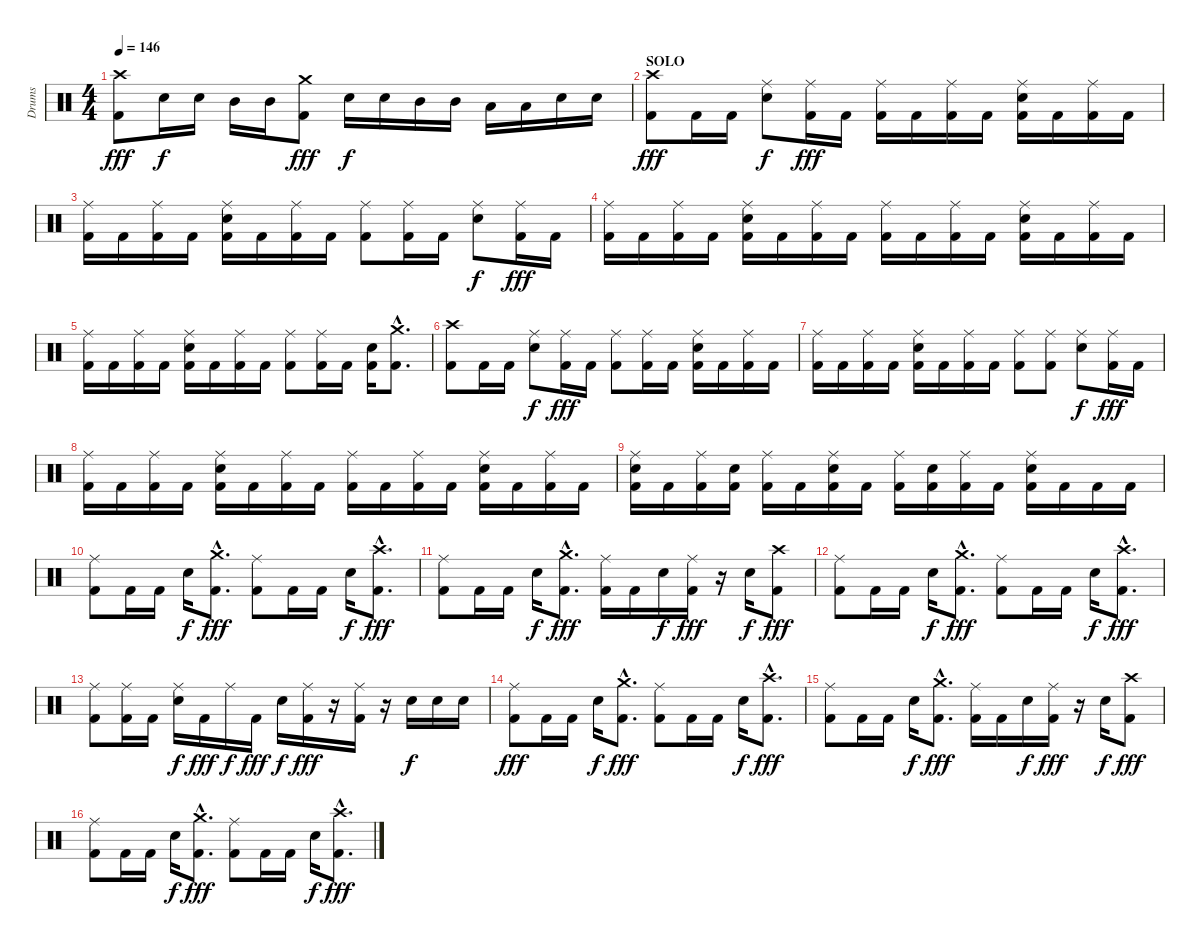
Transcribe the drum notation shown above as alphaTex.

\track ("Drums" "Drums") {instrument percussion}
\staff {score}
\articulation defaults
\ts (4 4)
\tempo 146
\clef neutral
\ks c
("Crash high (hit)" "Kick (hit) 2").8{dy fff} "Snare (hit) 2".16{dy f} "Snare (hit) 2".16 "Mid Tom (hit)".16 "Mid Tom (hit)".16 ("Crash medium (hit)" "Kick (hit) 2").8{dy fff} "Snare (hit) 2".16{dy f} "Snare (hit) 2".16 "Mid Tom (hit)".16 "Mid Tom (hit)".16 "Low Tom (hit)".16 "Low Tom (hit)".16 "Snare (hit) 2".16 "Snare (hit) 2".16 |
\section ("" "SOLO")
("Crash high (hit)" "Kick (hit) 2").8{dy fff} "Kick (hit) 2".16 "Kick (hit) 2".16 ("Ride (middle)" "Snare (hit) 2").8{dy f} ("Ride (middle)" "Kick (hit) 2").16{dy fff} "Kick (hit) 2".16 ("Ride (middle)" "Kick (hit) 2").16 "Kick (hit) 2".16 ("Ride (middle)" "Kick (hit) 2").16 "Kick (hit) 2".16 ("Ride (middle)" "Snare (hit) 2" "Kick (hit) 2").16 "Kick (hit) 2".16 ("Ride (middle)" "Kick (hit) 2").16 "Kick (hit) 2".16 |
("Ride (middle)" "Kick (hit) 2").16 "Kick (hit) 2".16 ("Ride (middle)" "Kick (hit) 2").16 "Kick (hit) 2".16 ("Ride (middle)" "Snare (hit) 2" "Kick (hit) 2").16 "Kick (hit) 2".16 ("Ride (middle)" "Kick (hit) 2").16 "Kick (hit) 2".16 ("Ride (middle)" "Kick (hit) 2").8 ("Ride (middle)" "Kick (hit) 2").16 "Kick (hit) 2".16 ("Ride (middle)" "Snare (hit) 2").8{dy f} ("Ride (middle)" "Kick (hit) 2").16{dy fff} "Kick (hit) 2".16 |
("Ride (middle)" "Kick (hit) 2").16 "Kick (hit) 2".16 ("Ride (middle)" "Kick (hit) 2").16 "Kick (hit) 2".16 ("Ride (middle)" "Snare (hit) 2" "Kick (hit) 2").16 "Kick (hit) 2".16 ("Ride (middle)" "Kick (hit) 2").16 "Kick (hit) 2".16 ("Ride (middle)" "Kick (hit) 2").16 "Kick (hit) 2".16 ("Ride (middle)" "Kick (hit) 2").16 "Kick (hit) 2".16 ("Ride (middle)" "Snare (hit) 2" "Kick (hit) 2").16 "Kick (hit) 2".16 ("Ride (middle)" "Kick (hit) 2").16 "Kick (hit) 2".16 |
("Ride (middle)" "Kick (hit) 2").16 "Kick (hit) 2".16 ("Ride (middle)" "Kick (hit) 2").16 "Kick (hit) 2".16 ("Ride (middle)" "Snare (hit) 2" "Kick (hit) 2").16 "Kick (hit) 2".16 ("Ride (middle)" "Kick (hit) 2").16 "Kick (hit) 2".16 ("Ride (middle)" "Kick (hit) 2").8 ("Ride (middle)" "Kick (hit) 2").16 "Kick (hit) 2".16 ("Snare (hit) 2" "Kick (hit) 2").16 ("Crash medium (hit)"{hac} "Kick (hit) 2"{hac}).8{d} |
("Crash high (hit)" "Kick (hit) 2").8 "Kick (hit) 2".16 "Kick (hit) 2".16 ("Ride (middle)" "Snare (hit) 2").8{dy f} ("Ride (middle)" "Kick (hit) 2").16{dy fff} "Kick (hit) 2".16 ("Ride (middle)" "Kick (hit) 2").8 ("Ride (middle)" "Kick (hit) 2").16 "Kick (hit) 2".16 ("Ride (middle)" "Snare (hit) 2" "Kick (hit) 2").16 "Kick (hit) 2".16 ("Ride (middle)" "Kick (hit) 2").16 "Kick (hit) 2".16 |
("Ride (middle)" "Kick (hit) 2").16 "Kick (hit) 2".16 ("Ride (middle)" "Kick (hit) 2").16 "Kick (hit) 2".16 ("Ride (middle)" "Snare (hit) 2" "Kick (hit) 2").16 "Kick (hit) 2".16 ("Ride (middle)" "Kick (hit) 2").16 "Kick (hit) 2".16 ("Ride (middle)" "Kick (hit) 2").8 ("Ride (middle)" "Kick (hit) 2").8 ("Ride (middle)" "Snare (hit) 2").8{dy f} ("Ride (middle)" "Kick (hit) 2").16{dy fff} "Kick (hit) 2".16 |
("Ride (middle)" "Kick (hit) 2").16 "Kick (hit) 2".16 ("Ride (middle)" "Kick (hit) 2").16 "Kick (hit) 2".16 ("Ride (middle)" "Snare (hit) 2" "Kick (hit) 2").16 "Kick (hit) 2".16 ("Ride (middle)" "Kick (hit) 2").16 "Kick (hit) 2".16 ("Ride (middle)" "Kick (hit) 2").16 "Kick (hit) 2".16 ("Ride (middle)" "Kick (hit) 2").16 "Kick (hit) 2".16 ("Ride (middle)" "Snare (hit) 2" "Kick (hit) 2").16 "Kick (hit) 2".16 ("Ride (middle)" "Kick (hit) 2").16 "Kick (hit) 2".16 |
("Ride (middle)" "Snare (hit) 2" "Kick (hit) 2").16 "Kick (hit) 2".16 ("Ride (middle)" "Kick (hit) 2").16 ("Snare (hit) 2" "Kick (hit) 2").16 ("Ride (middle)" "Kick (hit) 2").16 "Kick (hit) 2".16 ("Ride (middle)" "Snare (hit) 2" "Kick (hit) 2").16 "Kick (hit) 2".16 ("Ride (middle)" "Kick (hit) 2").16 ("Snare (hit) 2" "Kick (hit) 2").16 ("Ride (middle)" "Kick (hit) 2").16 "Kick (hit) 2".16 ("Ride (middle)" "Snare (hit) 2" "Kick (hit) 2").16 "Kick (hit) 2".16 "Kick (hit) 2".16 "Kick (hit) 2".16 |
("Ride (middle)" "Kick (hit) 2").8 "Kick (hit) 2".16 "Kick (hit) 2".16 "Snare (hit) 2".16{dy f} ("Crash medium (hit)"{hac} "Kick (hit) 2"{hac}).8{d dy fff} ("Ride (middle)" "Kick (hit) 2").8 "Kick (hit) 2".16 "Kick (hit) 2".16 "Snare (hit) 2".16{dy f} ("Crash high (hit)"{hac} "Kick (hit) 2"{hac}).8{d dy fff} |
("Ride (middle)" "Kick (hit) 2").8 "Kick (hit) 2".16 "Kick (hit) 2".16 "Snare (hit) 2".16{dy f} ("Crash medium (hit)"{hac} "Kick (hit) 2"{hac}).8{d dy fff} ("Ride (middle)" "Kick (hit) 2").16 "Kick (hit) 2".16 "Snare (hit) 2".16{dy f} ("Ride (middle)" "Kick (hit) 2").16{dy fff} r.16 "Snare (hit) 2".16{dy f} ("Crash high (hit)" "Kick (hit) 2").8{dy fff} |
("Ride (middle)" "Kick (hit) 2").8 "Kick (hit) 2".16 "Kick (hit) 2".16 "Snare (hit) 2".16{dy f} ("Crash medium (hit)"{hac} "Kick (hit) 2"{hac}).8{d dy fff} ("Ride (middle)" "Kick (hit) 2").8 "Kick (hit) 2".16 "Kick (hit) 2".16 "Snare (hit) 2".16{dy f} ("Crash high (hit)"{hac} "Kick (hit) 2"{hac}).8{d dy fff} |
("Ride (middle)" "Kick (hit) 2").8 ("Ride (middle)" "Kick (hit) 2").16 "Kick (hit) 2".16 ("Ride (middle)" "Snare (hit) 2").16{dy f} "Kick (hit) 2".16{dy fff} "Ride (middle)".16{dy f} "Kick (hit) 2".16{dy fff} "Snare (hit) 2".16{dy f} ("Ride (middle)" "Kick (hit) 2").16{dy fff} r.16 ("Ride (middle)" "Kick (hit) 2").16 r.16 "Snare (hit) 2".16{dy f} "Snare (hit) 2".16 "Snare (hit) 2".16 |
("Ride (middle)" "Kick (hit) 2").8{dy fff} "Kick (hit) 2".16 "Kick (hit) 2".16 "Snare (hit) 2".16{dy f} ("Crash medium (hit)"{hac} "Kick (hit) 2"{hac}).8{d dy fff} ("Ride (middle)" "Kick (hit) 2").8 "Kick (hit) 2".16 "Kick (hit) 2".16 "Snare (hit) 2".16{dy f} ("Crash high (hit)"{hac} "Kick (hit) 2"{hac}).8{d dy fff} |
("Ride (middle)" "Kick (hit) 2").8 "Kick (hit) 2".16 "Kick (hit) 2".16 "Snare (hit) 2".16{dy f} ("Crash medium (hit)"{hac} "Kick (hit) 2"{hac}).8{d dy fff} ("Ride (middle)" "Kick (hit) 2").16 "Kick (hit) 2".16 "Snare (hit) 2".16{dy f} ("Ride (middle)" "Kick (hit) 2").16{dy fff} r.16 "Snare (hit) 2".16{dy f} ("Crash high (hit)" "Kick (hit) 2").8{dy fff} |
("Ride (middle)" "Kick (hit) 2").8 "Kick (hit) 2".16 "Kick (hit) 2".16 "Snare (hit) 2".16{dy f} ("Crash medium (hit)"{hac} "Kick (hit) 2"{hac}).8{d dy fff} ("Ride (middle)" "Kick (hit) 2").8 "Kick (hit) 2".16 "Kick (hit) 2".16 "Snare (hit) 2".16{dy f} ("Crash high (hit)"{hac} "Kick (hit) 2"{hac}).8{d dy fff}
